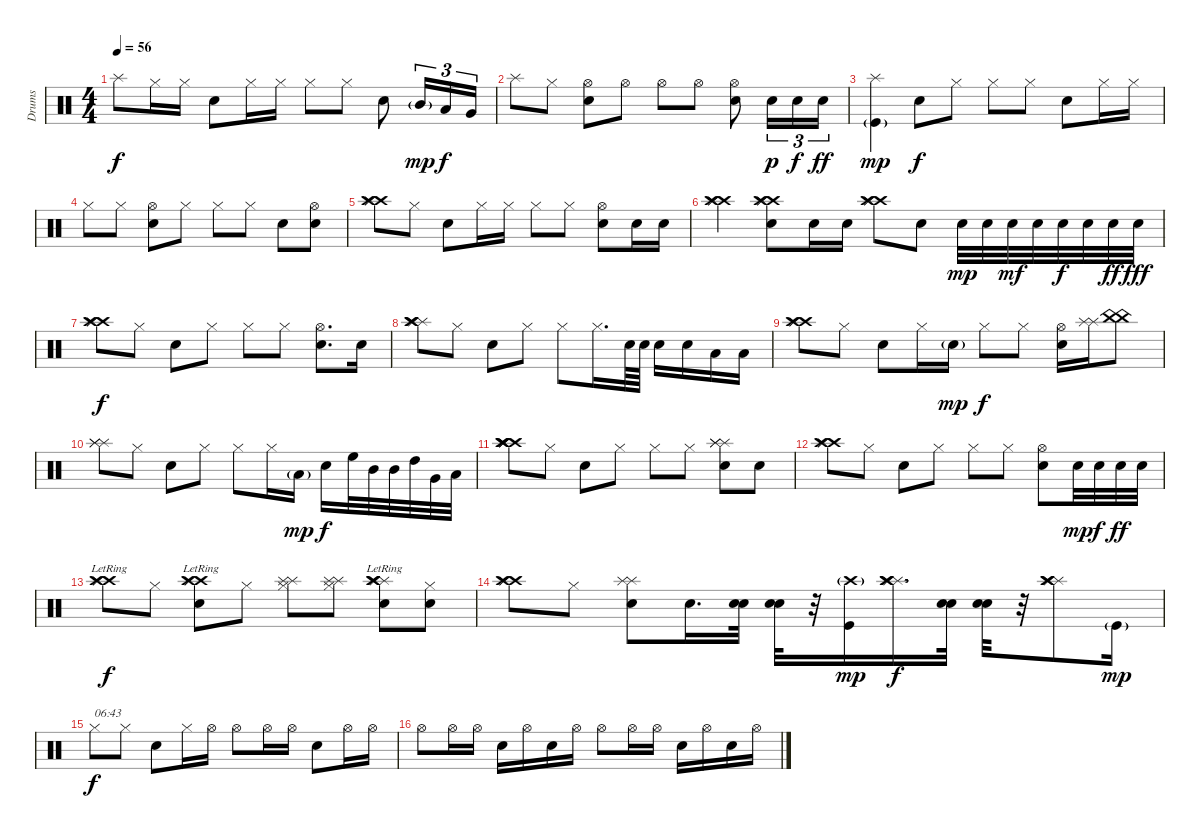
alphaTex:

\track ("Drums" "Drums") {instrument percussion}
\staff {score}
\articulation defaults
\ts (4 4)
\tempo 56
\clef neutral
\ks c "Splash (hit)".8{dy f} "Hi-Hat (closed)".16 "Hi-Hat (closed)".16 "Electric Snare (hit)".8 "Hi-Hat (closed)".16 "Hi-Hat (closed)".16 "Hi-Hat (closed)".8 "Hi-Hat (closed)".8 "Electric Snare (hit)".8 "Mid Tom (hit)"{g}.16{tu (3 2) dy mp} "Low Tom (hit)".16{tu (3 2) dy f} "Very Low Tom (hit)".16{tu (3 2)}
|
"Splash (hit)".8 "Hi-Hat (closed)".8 ("Hi-Hat (open)" "Electric Snare (hit)").8 "Hi-Hat (open)".8 "Hi-Hat (open)".8 "Hi-Hat (open)".8 ("Hi-Hat (open)" "Electric Snare (hit)").8 "Electric Snare (hit)".16{tu (3 2) dy p} "Electric Snare (hit)".16{tu (3 2) dy f} "Electric Snare (hit)".16{tu (3 2) dy ff} |
("Splash (hit)" "Kick (hit)"{g}).4{dy mp} "Electric Snare (hit)".8{dy f} "Hi-Hat (closed)".8 "Hi-Hat (closed)".8 "Hi-Hat (closed)".8 "Electric Snare (hit)".8 "Hi-Hat (closed)".16 "Hi-Hat (closed)".16 |
"Hi-Hat (closed)".8 "Hi-Hat (closed)".8 ("Hi-Hat (open)" "Electric Snare (hit)").8 "Hi-Hat (closed)".8 "Hi-Hat (closed)".8 "Hi-Hat (closed)".8 "Electric Snare (hit)".8 ("Hi-Hat (open)" "Electric Snare (hit)").8 |
("Crash high (hit)" "Splash (hit)" "Crash high (hit)" "Splash (hit)").8 "Hi-Hat (closed)".8 "Electric Snare (hit)".8 "Hi-Hat (closed)".16 "Hi-Hat (closed)".16 "Hi-Hat (closed)".8 "Hi-Hat (closed)".8 ("Hi-Hat (open)" "Electric Snare (hit)").8 "Electric Snare (hit)".16 "Electric Snare (hit)".16 |
("Crash high (hit)" "Crash high (hit)" "Splash (hit)" "Splash (hit)").4{volume 16} ("Crash high (hit)" "Crash high (hit)" "Splash (hit)" "Splash (hit)" "Electric Snare (hit)").8 "Electric Snare (hit)".16 "Electric Snare (hit)".16 ("Crash high (hit)" "Crash high (hit)" "Splash (hit)" "Splash (hit)").8 "Electric Snare (hit)".8 "Electric Snare (hit)".32{dy mp} "Electric Snare (hit)".32 "Electric Snare (hit)".32{dy mf} "Electric Snare (hit)".32 "Electric Snare (hit)".32{dy f} "Electric Snare (hit)".32 "Electric Snare (hit)".32{dy ff} "Electric Snare (hit)".32{dy fff} |
("Crash high (hit)" "Splash (hit)" "Crash high (hit)" "Splash (hit)").8{dy f volume 13} "Hi-Hat (closed)".8 "Electric Snare (hit)".8 "Hi-Hat (closed)".8 "Hi-Hat (closed)".8 "Hi-Hat (closed)".8 ("Hi-Hat (open)" "Electric Snare (hit)").8{d} "Electric Snare (hit)".16 |
("Splash (hit)" "Crash high (hit)" "Crash high (hit)" "Splash (hit)").8 "Hi-Hat (closed)".8 "Electric Snare (hit)".8 "Hi-Hat (closed)".8 "Hi-Hat (closed)".8 "Hi-Hat (closed)".16{d} "Electric Snare (hit)".64 "Electric Snare (hit)".64 "Electric Snare (hit)".16 "Electric Snare (hit)".16 "Low Tom (hit)".16 "Low Tom (hit)".16 |
("Crash high (hit)" "Splash (hit)" "Crash high (hit)" "Splash (hit)").8 "Hi-Hat (closed)".8 "Electric Snare (hit)".8 "Hi-Hat (closed)".16 "Electric Snare (hit)"{g}.16{dy mp} "Hi-Hat (closed)".8{dy f} "Hi-Hat (closed)".8 ("Hi-Hat (open)" "Electric Snare (hit)").16 ("Splash (hit)" "Splash (hit)").16 ("China (hit)" "China (hit)").8 |
("Splash (hit)" "Splash (hit)" "Splash (hit)").8 "Hi-Hat (closed)".8 "Electric Snare (hit)".8 "Hi-Hat (closed)".8 "Hi-Hat (closed)".8 "Hi-Hat (closed)".16 "Low Tom (hit)"{g}.16{dy mp} "Electric Snare (hit)".16{dy f} "High Floor Tom (hit)".32 "Mid Tom (hit)".32 "Mid Tom (hit)".32 "High Tom (hit)".32 "Very Low Tom (hit)".32 "Low Floor Tom (hit)".32 |
("Crash high (hit)" "Crash high (hit)" "Splash (hit)" "Splash (hit)" "Crash high (hit)" "Splash (hit)").8 "Hi-Hat (closed)".8 "Electric Snare (hit)".8 "Hi-Hat (closed)".8 "Hi-Hat (closed)".8 "Hi-Hat (closed)".8 ("Splash (hit)" "Splash (hit)" "Splash (hit)" "Electric Snare (hit)").8 "Electric Snare (hit)".8 |
("Crash high (hit)" "Crash high (hit)" "Splash (hit)" "Splash (hit)").8 "Hi-Hat (closed)".8 "Electric Snare (hit)".8 "Hi-Hat (closed)".8 "Hi-Hat (closed)".8 "Hi-Hat (closed)".8 ("Hi-Hat (open)" "Electric Snare (hit)").8 "Electric Snare (hit)".32{dy mp} "Electric Snare (hit)".32{dy f} "Electric Snare (hit)".32{dy ff} "Electric Snare (hit)".32 |
("Crash high (hit)"{lr} "Crash high (hit)"{lr} "Splash (hit)"{lr} "Splash (hit)").8{dy f} "Hi-Hat (closed)".8 ("Crash high (hit)"{lr} "Splash (hit)"{lr} "Crash high (hit)"{lr} "Splash (hit)" "Electric Snare (hit)").8 "Hi-Hat (closed)".8 ("Splash (hit)" "Splash (hit)" "Hi-Hat (closed)").8 ("Splash (hit)" "Splash (hit)" "Hi-Hat (closed)").8 ("Splash (hit)"{lr} "Crash high (hit)"{lr} "Crash high (hit)"{lr} "Splash (hit)" "Electric Snare (hit)").8 ("Hi-Hat (closed)" "Electric Snare (hit)").8 |
("Crash high (hit)" "Crash high (hit)" "Splash (hit)" "Splash (hit)").8 "Hi-Hat (closed)".8 ("Splash (hit)" "Splash (hit)" "Electric Snare (hit)").8 "Electric Snare (hit)".16{d} ("Electric Snare (hit)" "Electric Snare (hit)").32 ("Electric Snare (hit)" "Electric Snare (hit)").32 r.32 ("Crash high (hit)"{g} "Kick (hit)").16{dy mp} ("Splash (hit)" "Crash high (hit)" "Crash high (hit)" "Splash (hit)").16{d dy f} ("Electric Snare (hit)" "Electric Snare (hit)").32 ("Electric Snare (hit)" "Electric Snare (hit)").32 r.32 ("Splash (hit)" "Crash high (hit)" "Crash high (hit)" "Splash (hit)").8 "Kick (hit)"{g}.16{dy mp} |
"Hi-Hat (closed)".8{txt "06:43" dy f} "Hi-Hat (closed)".8 "Electric Snare (hit)".8 "Hi-Hat (closed)".16 "Hi-Hat (open)".16 "Hi-Hat (open)".8 "Hi-Hat (open)".16 "Hi-Hat (open)".16 "Electric Snare (hit)".8 "Hi-Hat (open)".16 "Hi-Hat (open)".16 |
"Hi-Hat (open)".8 "Hi-Hat (open)".16 "Hi-Hat (open)".16 "Electric Snare (hit)".16 "Hi-Hat (open)".16 "Electric Snare (hit)".16 "Hi-Hat (open)".16 "Hi-Hat (open)".8 "Hi-Hat (open)".16 "Hi-Hat (open)".16 "Electric Snare (hit)".16 "Hi-Hat (open)".16 "Electric Snare (hit)".16 "Hi-Hat (open)".16
